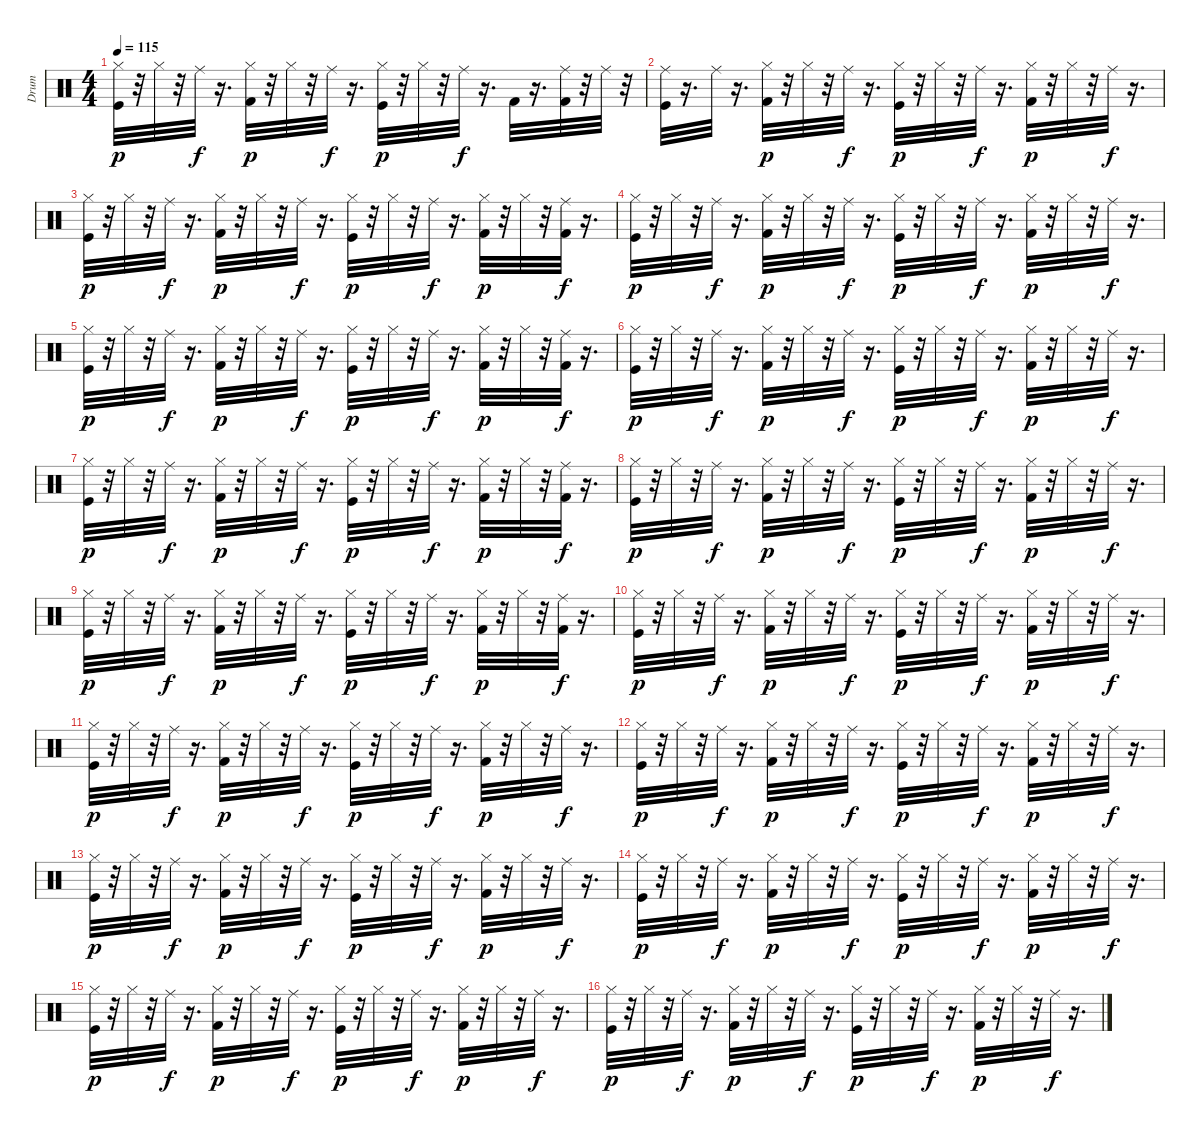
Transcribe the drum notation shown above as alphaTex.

\track ("Drum" "Drum") {instrument percussion}
\staff {score}
\articulation defaults
\ts (4 4)
\tempo 115
\clef neutral
\ks c
("Hi-Hat (closed)" "Kick (hit)").32{dy p} r.32 "Hi-Hat (closed)".32 r.32 "Ride (middle)".32{dy f} r.16{d} ("Hi-Hat (closed)" "Kick (hit) 2").32{dy p} r.32 "Hi-Hat (closed)".32 r.32 "Ride (middle)".32{dy f} r.16{d} ("Hi-Hat (closed)" "Kick (hit)").32{dy p} r.32 "Hi-Hat (closed)".32 r.32 "Ride (middle)".32{dy f} r.16{d} "Kick (hit) 2".32 r.16{d} ("Ride (middle)" "Kick (hit) 2").32 r.32 "Ride (middle)".32 r.32 |
("Ride (middle)" "Kick (hit)").32 r.16{d} "Ride (middle)".32 r.16{d} ("Hi-Hat (closed)" "Kick (hit) 2").32{dy p} r.32 "Hi-Hat (closed)".32 r.32 "Ride (middle)".32{dy f} r.16{d} ("Hi-Hat (closed)" "Kick (hit)").32{dy p} r.32 "Hi-Hat (closed)".32 r.32 "Ride (middle)".32{dy f} r.16{d} ("Hi-Hat (closed)" "Kick (hit) 2").32{dy p} r.32 "Hi-Hat (closed)".32 r.32 "Ride (middle)".32{dy f} r.16{d} |
("Hi-Hat (closed)" "Kick (hit)").32{dy p} r.32 "Hi-Hat (closed)".32 r.32 "Ride (middle)".32{dy f} r.16{d} ("Hi-Hat (closed)" "Kick (hit) 2").32{dy p} r.32 "Hi-Hat (closed)".32 r.32 "Ride (middle)".32{dy f} r.16{d} ("Hi-Hat (closed)" "Kick (hit)").32{dy p} r.32 "Hi-Hat (closed)".32 r.32 "Ride (middle)".32{dy f} r.16{d} ("Kick (hit) 2" "Hi-Hat (closed)").32{dy p} r.32 "Hi-Hat (closed)".32 r.32 ("Kick (hit) 2" "Ride (middle)").32{dy f} r.16{d} |
("Hi-Hat (closed)" "Kick (hit)").32{dy p} r.32 "Hi-Hat (closed)".32 r.32 "Ride (middle)".32{dy f} r.16{d} ("Hi-Hat (closed)" "Kick (hit) 2").32{dy p} r.32 "Hi-Hat (closed)".32 r.32 "Ride (middle)".32{dy f} r.16{d} ("Hi-Hat (closed)" "Kick (hit)").32{dy p} r.32 "Hi-Hat (closed)".32 r.32 "Ride (middle)".32{dy f} r.16{d} ("Hi-Hat (closed)" "Kick (hit) 2").32{dy p} r.32 "Hi-Hat (closed)".32 r.32 "Ride (middle)".32{dy f} r.16{d} |
("Hi-Hat (closed)" "Kick (hit)").32{dy p} r.32 "Hi-Hat (closed)".32 r.32 "Ride (middle)".32{dy f} r.16{d} ("Hi-Hat (closed)" "Kick (hit) 2").32{dy p} r.32 "Hi-Hat (closed)".32 r.32 "Ride (middle)".32{dy f} r.16{d} ("Hi-Hat (closed)" "Kick (hit)").32{dy p} r.32 "Hi-Hat (closed)".32 r.32 "Ride (middle)".32{dy f} r.16{d} ("Kick (hit) 2" "Hi-Hat (closed)").32{dy p} r.32 "Hi-Hat (closed)".32 r.32 ("Kick (hit) 2" "Ride (middle)").32{dy f} r.16{d} |
("Hi-Hat (closed)" "Kick (hit)").32{dy p} r.32 "Hi-Hat (closed)".32 r.32 "Ride (middle)".32{dy f} r.16{d} ("Hi-Hat (closed)" "Kick (hit) 2").32{dy p} r.32 "Hi-Hat (closed)".32 r.32 "Ride (middle)".32{dy f} r.16{d} ("Hi-Hat (closed)" "Kick (hit)").32{dy p} r.32 "Hi-Hat (closed)".32 r.32 "Ride (middle)".32{dy f} r.16{d} ("Hi-Hat (closed)" "Kick (hit) 2").32{dy p} r.32 "Hi-Hat (closed)".32 r.32 "Ride (middle)".32{dy f} r.16{d} |
("Hi-Hat (closed)" "Kick (hit)").32{dy p} r.32 "Hi-Hat (closed)".32 r.32 "Ride (middle)".32{dy f} r.16{d} ("Hi-Hat (closed)" "Kick (hit) 2").32{dy p} r.32 "Hi-Hat (closed)".32 r.32 "Ride (middle)".32{dy f} r.16{d} ("Hi-Hat (closed)" "Kick (hit)").32{dy p} r.32 "Hi-Hat (closed)".32 r.32 "Ride (middle)".32{dy f} r.16{d} ("Kick (hit) 2" "Hi-Hat (closed)").32{dy p} r.32 "Hi-Hat (closed)".32 r.32 ("Kick (hit) 2" "Ride (middle)").32{dy f} r.16{d} |
("Hi-Hat (closed)" "Kick (hit)").32{dy p} r.32 "Hi-Hat (closed)".32 r.32 "Ride (middle)".32{dy f} r.16{d} ("Hi-Hat (closed)" "Kick (hit) 2").32{dy p} r.32 "Hi-Hat (closed)".32 r.32 "Ride (middle)".32{dy f} r.16{d} ("Hi-Hat (closed)" "Kick (hit)").32{dy p} r.32 "Hi-Hat (closed)".32 r.32 "Ride (middle)".32{dy f} r.16{d} ("Hi-Hat (closed)" "Kick (hit) 2").32{dy p} r.32 "Hi-Hat (closed)".32 r.32 "Ride (middle)".32{dy f} r.16{d} |
("Hi-Hat (closed)" "Kick (hit)").32{dy p} r.32 "Hi-Hat (closed)".32 r.32 "Ride (middle)".32{dy f} r.16{d} ("Hi-Hat (closed)" "Kick (hit) 2").32{dy p} r.32 "Hi-Hat (closed)".32 r.32 "Ride (middle)".32{dy f} r.16{d} ("Hi-Hat (closed)" "Kick (hit)").32{dy p} r.32 "Hi-Hat (closed)".32 r.32 "Ride (middle)".32{dy f} r.16{d} ("Kick (hit) 2" "Hi-Hat (closed)").32{dy p} r.32 "Hi-Hat (closed)".32 r.32 ("Kick (hit) 2" "Ride (middle)").32{dy f} r.16{d} |
("Hi-Hat (closed)" "Kick (hit)").32{dy p} r.32 "Hi-Hat (closed)".32 r.32 "Ride (middle)".32{dy f} r.16{d} ("Hi-Hat (closed)" "Kick (hit) 2").32{dy p} r.32 "Hi-Hat (closed)".32 r.32 "Ride (middle)".32{dy f} r.16{d} ("Hi-Hat (closed)" "Kick (hit)").32{dy p} r.32 "Hi-Hat (closed)".32 r.32 "Ride (middle)".32{dy f} r.16{d} ("Hi-Hat (closed)" "Kick (hit) 2").32{dy p} r.32 "Hi-Hat (closed)".32 r.32 "Ride (middle)".32{dy f} r.16{d} |
("Hi-Hat (closed)" "Kick (hit)").32{dy p} r.32 "Hi-Hat (closed)".32 r.32 "Ride (middle)".32{dy f} r.16{d} ("Hi-Hat (closed)" "Kick (hit) 2").32{dy p} r.32 "Hi-Hat (closed)".32 r.32 "Ride (middle)".32{dy f} r.16{d} ("Hi-Hat (closed)" "Kick (hit)").32{dy p} r.32 "Hi-Hat (closed)".32 r.32 "Ride (middle)".32{dy f} r.16{d} ("Hi-Hat (closed)" "Kick (hit) 2").32{dy p} r.32 "Hi-Hat (closed)".32 r.32 "Ride (middle)".32{dy f} r.16{d} |
("Hi-Hat (closed)" "Kick (hit)").32{dy p} r.32 "Hi-Hat (closed)".32 r.32 "Ride (middle)".32{dy f} r.16{d} ("Hi-Hat (closed)" "Kick (hit) 2").32{dy p} r.32 "Hi-Hat (closed)".32 r.32 "Ride (middle)".32{dy f} r.16{d} ("Hi-Hat (closed)" "Kick (hit)").32{dy p} r.32 "Hi-Hat (closed)".32 r.32 "Ride (middle)".32{dy f} r.16{d} ("Hi-Hat (closed)" "Kick (hit) 2").32{dy p} r.32 "Hi-Hat (closed)".32 r.32 "Ride (middle)".32{dy f} r.16{d} |
("Hi-Hat (closed)" "Kick (hit)").32{dy p} r.32 "Hi-Hat (closed)".32 r.32 "Ride (middle)".32{dy f} r.16{d} ("Hi-Hat (closed)" "Kick (hit) 2").32{dy p} r.32 "Hi-Hat (closed)".32 r.32 "Ride (middle)".32{dy f} r.16{d} ("Hi-Hat (closed)" "Kick (hit)").32{dy p} r.32 "Hi-Hat (closed)".32 r.32 "Ride (middle)".32{dy f} r.16{d} ("Hi-Hat (closed)" "Kick (hit) 2").32{dy p} r.32 "Hi-Hat (closed)".32 r.32 "Ride (middle)".32{dy f} r.16{d} |
("Hi-Hat (closed)" "Kick (hit)").32{dy p} r.32 "Hi-Hat (closed)".32 r.32 "Ride (middle)".32{dy f} r.16{d} ("Hi-Hat (closed)" "Kick (hit) 2").32{dy p} r.32 "Hi-Hat (closed)".32 r.32 "Ride (middle)".32{dy f} r.16{d} ("Hi-Hat (closed)" "Kick (hit)").32{dy p} r.32 "Hi-Hat (closed)".32 r.32 "Ride (middle)".32{dy f} r.16{d} ("Hi-Hat (closed)" "Kick (hit) 2").32{dy p} r.32 "Hi-Hat (closed)".32 r.32 "Ride (middle)".32{dy f} r.16{d} |
("Hi-Hat (closed)" "Kick (hit)").32{dy p} r.32 "Hi-Hat (closed)".32 r.32 "Ride (middle)".32{dy f} r.16{d} ("Hi-Hat (closed)" "Kick (hit) 2").32{dy p} r.32 "Hi-Hat (closed)".32 r.32 "Ride (middle)".32{dy f} r.16{d} ("Hi-Hat (closed)" "Kick (hit)").32{dy p} r.32 "Hi-Hat (closed)".32 r.32 "Ride (middle)".32{dy f} r.16{d} ("Hi-Hat (closed)" "Kick (hit) 2").32{dy p} r.32 "Hi-Hat (closed)".32 r.32 "Ride (middle)".32{dy f} r.16{d} |
("Hi-Hat (closed)" "Kick (hit)").32{dy p} r.32 "Hi-Hat (closed)".32 r.32 "Ride (middle)".32{dy f} r.16{d} ("Hi-Hat (closed)" "Kick (hit) 2").32{dy p} r.32 "Hi-Hat (closed)".32 r.32 "Ride (middle)".32{dy f} r.16{d} ("Hi-Hat (closed)" "Kick (hit)").32{dy p} r.32 "Hi-Hat (closed)".32 r.32 "Ride (middle)".32{dy f} r.16{d} ("Hi-Hat (closed)" "Kick (hit) 2").32{dy p} r.32 "Hi-Hat (closed)".32 r.32 "Ride (middle)".32{dy f} r.16{d}
